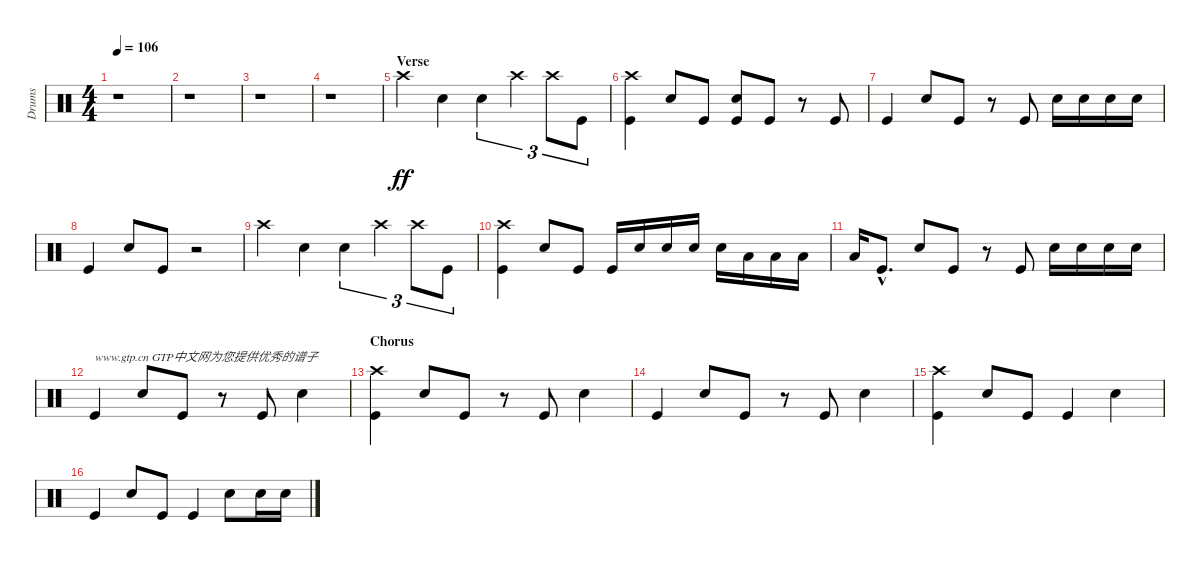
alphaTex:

\track ("Drums" "Drums") {instrument percussion}
\staff {score}
\articulation defaults
\ts (4 4)
\tempo 106
\clef neutral
\ks c
r.1{dy ff} |
r.1 |
r.1 |
r.1 |
\section ("" "Verse")
"Crash high (hit)".4 "Snare (hit) 2".4 "Snare (hit) 2".4{tu (3 2)} "Crash high (hit)".4{tu (3 2)} "Crash high (hit)".8{tu (3 2)} "Kick (hit)".8{tu (3 2)} |
("Crash high (hit)" "Kick (hit)").4 "Snare (hit) 2".8 "Kick (hit)".8 ("Snare (hit) 2" "Kick (hit)").8 "Kick (hit)".8 r.8 "Kick (hit)".8 |
"Kick (hit)".4 "Snare (hit) 2".8 "Kick (hit)".8 r.8 "Kick (hit)".8 "Snare (hit) 2".16 "Snare (hit) 2".16 "Snare (hit) 2".16 "Snare (hit) 2".16 |
"Kick (hit)".4 "Snare (hit) 2".8 "Kick (hit)".8 r.2 |
"Crash high (hit)".4 "Snare (hit) 2".4 "Snare (hit) 2".4{tu (3 2)} "Crash high (hit)".4{tu (3 2)} "Crash high (hit)".8{tu (3 2)} "Kick (hit)".8{tu (3 2)} |
("Crash high (hit)" "Kick (hit)").4 "Snare (hit) 2".8 "Kick (hit)".8 "Kick (hit)".16 "Snare (hit) 2".16 "Snare (hit) 2".16 "Snare (hit) 2".16 "Snare (hit) 2".16 "Low Tom (hit)".16 "Low Tom (hit)".16 "Low Tom (hit)".16 |
"Low Tom (hit)".16 "Kick (hit)"{hac}.8{d} "Snare (hit) 2".8 "Kick (hit)".8 r.8 "Kick (hit)".8 "Snare (hit) 2".16 "Snare (hit) 2".16 "Snare (hit) 2".16 "Snare (hit) 2".16 |
"Kick (hit)".4{txt "www.gtp.cn GTP中文网为您提供优秀的谱子"} "Snare (hit) 2".8 "Kick (hit)".8 r.8 "Kick (hit)".8 "Snare (hit) 2".4 |
\section ("" "Chorus")
("Crash high (hit)" "Kick (hit)").4 "Snare (hit) 2".8 "Kick (hit)".8 r.8 "Kick (hit)".8 "Snare (hit) 2".4 |
"Kick (hit)".4 "Snare (hit) 2".8 "Kick (hit)".8 r.8 "Kick (hit)".8 "Snare (hit) 2".4 |
("Crash high (hit)" "Kick (hit)").4 "Snare (hit) 2".8 "Kick (hit)".8 "Kick (hit)".4 "Snare (hit) 2".4 |
"Kick (hit)".4 "Snare (hit) 2".8 "Kick (hit)".8 "Kick (hit)".4 "Snare (hit) 2".8 "Snare (hit) 2".16 "Snare (hit) 2".16
